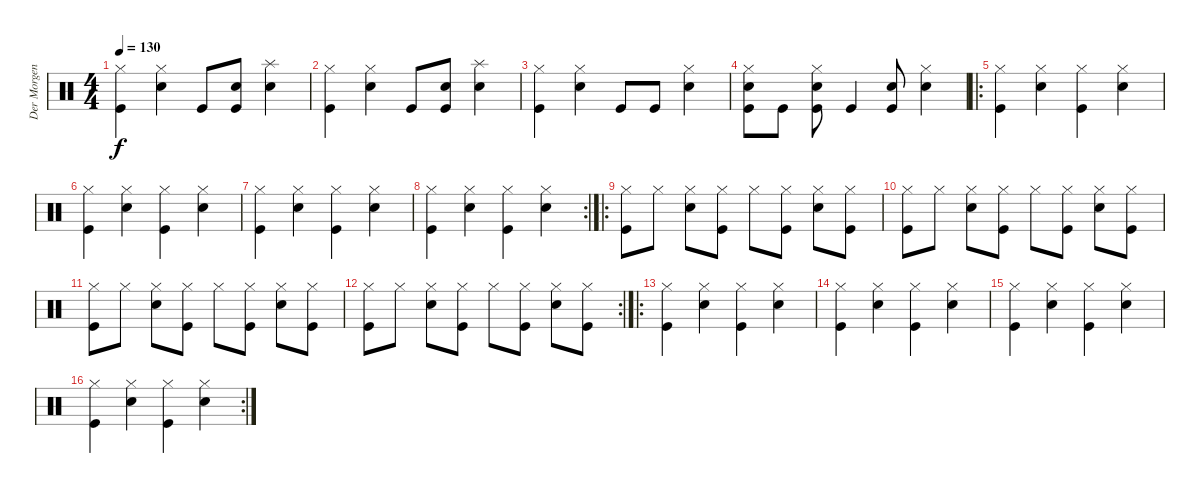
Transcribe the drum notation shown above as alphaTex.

\track ("Der Morgenstern" "Der Morgen") {instrument percussion}
\staff {score}
\articulation defaults
\ts (4 4)
\tempo 130
\clef neutral
\ks c
("Hi-Hat (closed)" "Kick (hit)").4{dy f} ("Hi-Hat (closed)" "Snare (hit) 2").4 "Kick (hit)".8 ("Snare (hit) 2" "Kick (hit)").8 ("Splash (hit)" "Snare (hit) 2").4 |
("Hi-Hat (closed)" "Kick (hit)").4 ("Hi-Hat (closed)" "Snare (hit) 2").4 "Kick (hit)".8 ("Snare (hit) 2" "Kick (hit)").8 ("Splash (hit)" "Snare (hit) 2").4 |
("Hi-Hat (closed)" "Kick (hit)").4 ("Hi-Hat (closed)" "Snare (hit) 2").4 "Kick (hit)".8 "Kick (hit)".8 ("Hi-Hat (closed)" "Snare (hit) 2").4 |
("Hi-Hat (closed)" "Snare (hit) 2" "Kick (hit)").8 "Kick (hit)".8 ("Hi-Hat (closed)" "Snare (hit) 2" "Kick (hit)").8 "Kick (hit)".4 ("Snare (hit) 2" "Kick (hit)").8 ("Hi-Hat (closed)" "Snare (hit) 2").4 |
\ro
("Hi-Hat (closed)" "Kick (hit)").4 ("Hi-Hat (closed)" "Snare (hit) 2").4 ("Hi-Hat (closed)" "Kick (hit)").4 ("Hi-Hat (closed)" "Snare (hit) 2").4 |
("Hi-Hat (closed)" "Kick (hit)").4 ("Hi-Hat (closed)" "Snare (hit) 2").4 ("Hi-Hat (closed)" "Kick (hit)").4 ("Hi-Hat (closed)" "Snare (hit) 2").4 |
("Hi-Hat (closed)" "Kick (hit)").4 ("Hi-Hat (closed)" "Snare (hit) 2").4 ("Hi-Hat (closed)" "Kick (hit)").4 ("Hi-Hat (closed)" "Snare (hit) 2").4 |
\rc 2
("Hi-Hat (closed)" "Kick (hit)").4 ("Hi-Hat (closed)" "Snare (hit) 2").4 ("Hi-Hat (closed)" "Kick (hit)").4 ("Hi-Hat (closed)" "Snare (hit) 2").4 |
\ro
("Hi-Hat (closed)" "Kick (hit)").8 "Hi-Hat (closed)".8 ("Hi-Hat (closed)" "Snare (hit) 2").8 ("Hi-Hat (closed)" "Kick (hit)").8 "Hi-Hat (closed)".8 ("Hi-Hat (closed)" "Kick (hit)").8 ("Hi-Hat (closed)" "Snare (hit) 2").8 ("Hi-Hat (closed)" "Kick (hit)").8 |
("Hi-Hat (closed)" "Kick (hit)").8 "Hi-Hat (closed)".8 ("Hi-Hat (closed)" "Snare (hit) 2").8 ("Hi-Hat (closed)" "Kick (hit)").8 "Hi-Hat (closed)".8 ("Hi-Hat (closed)" "Kick (hit)").8 ("Hi-Hat (closed)" "Snare (hit) 2").8 ("Hi-Hat (closed)" "Kick (hit)").8 |
("Hi-Hat (closed)" "Kick (hit)").8 "Hi-Hat (closed)".8 ("Hi-Hat (closed)" "Snare (hit) 2").8 ("Hi-Hat (closed)" "Kick (hit)").8 "Hi-Hat (closed)".8 ("Hi-Hat (closed)" "Kick (hit)").8 ("Hi-Hat (closed)" "Snare (hit) 2").8 ("Hi-Hat (closed)" "Kick (hit)").8 |
\rc 2
("Hi-Hat (closed)" "Kick (hit)").8 "Hi-Hat (closed)".8 ("Hi-Hat (closed)" "Snare (hit) 2").8 ("Hi-Hat (closed)" "Kick (hit)").8 "Hi-Hat (closed)".8 ("Hi-Hat (closed)" "Kick (hit)").8 ("Hi-Hat (closed)" "Snare (hit) 2").8 ("Hi-Hat (closed)" "Kick (hit)").8 |
\ro
("Hi-Hat (closed)" "Kick (hit)").4 ("Hi-Hat (closed)" "Snare (hit) 2").4 ("Hi-Hat (closed)" "Kick (hit)").4 ("Hi-Hat (closed)" "Snare (hit) 2").4 |
("Hi-Hat (closed)" "Kick (hit)").4 ("Hi-Hat (closed)" "Snare (hit) 2").4 ("Hi-Hat (closed)" "Kick (hit)").4 ("Hi-Hat (closed)" "Snare (hit) 2").4 |
("Hi-Hat (closed)" "Kick (hit)").4 ("Hi-Hat (closed)" "Snare (hit) 2").4 ("Hi-Hat (closed)" "Kick (hit)").4 ("Hi-Hat (closed)" "Snare (hit) 2").4 |
\rc 2
("Hi-Hat (closed)" "Kick (hit)").4 ("Hi-Hat (closed)" "Snare (hit) 2").4 ("Hi-Hat (closed)" "Kick (hit)").4 ("Hi-Hat (closed)" "Snare (hit) 2").4
